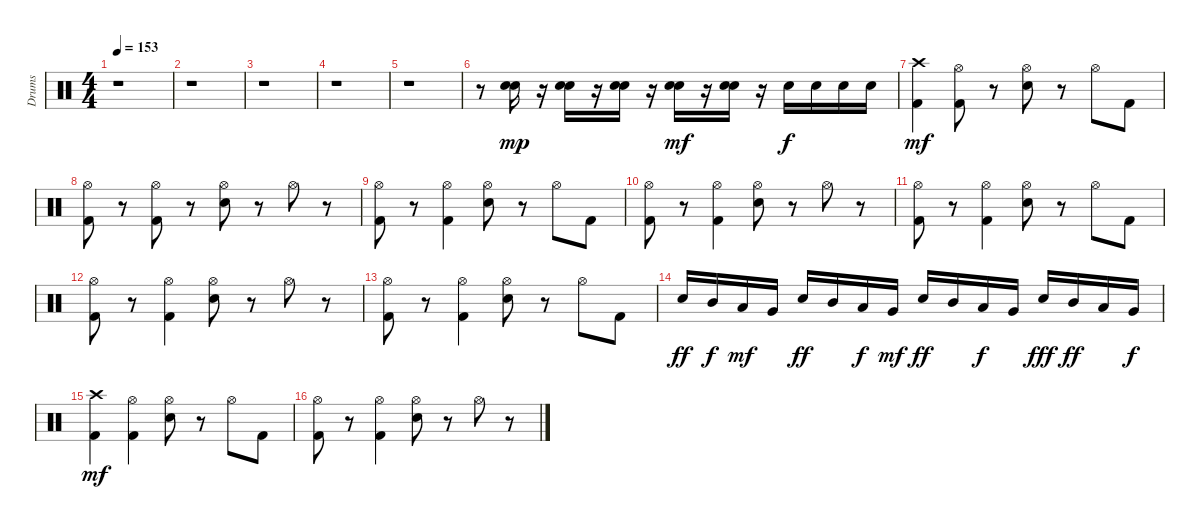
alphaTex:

\track ("Drums" "Drums") {instrument percussion}
\staff {score}
\articulation defaults
\ts (4 4)
\tempo 153
\clef neutral
\ks c
r.1{dy mf} |
r.1 |
r.1 |
r.1 |
r.1 |
r.8 ("Snare (hit) 2" "Electric Snare (hit)").16{dy mp} r.16 ("Snare (hit) 2" "Electric Snare (hit)").16 r.16 ("Snare (hit) 2" "Electric Snare (hit)").16 r.16 ("Snare (hit) 2" "Electric Snare (hit)").16{dy mf} r.16 ("Snare (hit) 2" "Electric Snare (hit)").16 r.16 "Electric Snare (hit)".16{dy f} "Electric Snare (hit)".16 "Electric Snare (hit)".16 "Electric Snare (hit)".16 |
("Kick (hit) 2" "Crash high (hit)").4{dy mf} ("Kick (hit) 2" "Hi-Hat (open)").8 r.8 ("Electric Snare (hit)" "Hi-Hat (open)").8 r.8 "Hi-Hat (open)".8 "Kick (hit) 2".8 |
("Kick (hit) 2" "Hi-Hat (open)").8 r.8 ("Kick (hit) 2" "Hi-Hat (open)").8 r.8 ("Electric Snare (hit)" "Hi-Hat (open)").8 r.8 "Hi-Hat (open)".8 r.8 |
("Kick (hit) 2" "Hi-Hat (open)").8 r.8 ("Kick (hit) 2" "Hi-Hat (open)").4 ("Electric Snare (hit)" "Hi-Hat (open)").8 r.8 "Hi-Hat (open)".8 "Kick (hit) 2".8 |
("Kick (hit) 2" "Hi-Hat (open)").8 r.8 ("Kick (hit) 2" "Hi-Hat (open)").4 ("Electric Snare (hit)" "Hi-Hat (open)").8 r.8 "Hi-Hat (open)".8 r.8 |
("Kick (hit) 2" "Hi-Hat (open)").8 r.8 ("Kick (hit) 2" "Hi-Hat (open)").4 ("Electric Snare (hit)" "Hi-Hat (open)").8 r.8 "Hi-Hat (open)".8 "Kick (hit) 2".8 |
("Kick (hit) 2" "Hi-Hat (open)").8 r.8 ("Kick (hit) 2" "Hi-Hat (open)").4 ("Electric Snare (hit)" "Hi-Hat (open)").8 r.8 "Hi-Hat (open)".8 r.8 |
("Kick (hit) 2" "Hi-Hat (open)").8 r.8 ("Kick (hit) 2" "Hi-Hat (open)").4 ("Electric Snare (hit)" "Hi-Hat (open)").8 r.8 "Hi-Hat (open)".8 "Kick (hit) 2".8 |
"Electric Snare (hit)".16{dy ff} "Mid Tom (hit)".16{dy f} "Low Tom (hit)".16{dy mf} "Very Low Tom (hit)".16 "Electric Snare (hit)".16{dy ff} "Mid Tom (hit)".16 "Low Tom (hit)".16{dy f} "Very Low Tom (hit)".16{dy mf} "Electric Snare (hit)".16{dy ff} "Mid Tom (hit)".16 "Low Tom (hit)".16{dy f} "Very Low Tom (hit)".16 "Electric Snare (hit)".16{dy fff} "Mid Tom (hit)".16{dy ff} "Low Tom (hit)".16 "Very Low Tom (hit)".16{dy f} |
("Kick (hit) 2" "Crash high (hit)").4{dy mf} ("Kick (hit) 2" "Hi-Hat (open)").4 ("Electric Snare (hit)" "Hi-Hat (open)").8 r.8 "Hi-Hat (open)".8 "Kick (hit) 2".8 |
("Kick (hit) 2" "Hi-Hat (open)").8 r.8 ("Kick (hit) 2" "Hi-Hat (open)").4 ("Electric Snare (hit)" "Hi-Hat (open)").8 r.8 "Hi-Hat (open)".8 r.8
